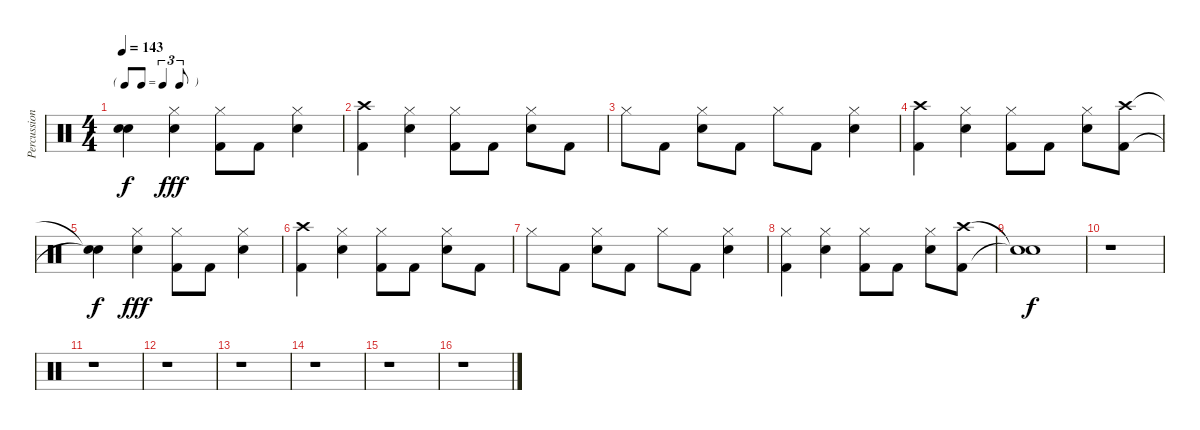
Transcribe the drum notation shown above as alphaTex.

\track ("Percussion" "Percussion") {instrument percussion}
\staff {score}
\articulation defaults
\ts (4 4)
\tf triplet8th
\tempo 143
\clef neutral
\ks c
("Snare (hit)"{t} "Snare (hit)"{t}).4{dy f} ("Hi-Hat (closed)" "Snare (hit) 2").4{dy fff} ("Hi-Hat (closed)" "Kick (hit) 2").8 "Kick (hit) 2".8 ("Hi-Hat (closed)" "Snare (hit) 2").4 |
("Crash high (hit)" "Kick (hit) 2").4 ("Hi-Hat (closed)" "Snare (hit) 2").4 ("Hi-Hat (closed)" "Kick (hit) 2").8 "Kick (hit) 2".8 ("Hi-Hat (closed)" "Snare (hit) 2").8 "Kick (hit) 2".8 |
"Hi-Hat (closed)".8 "Kick (hit) 2".8 ("Hi-Hat (closed)" "Snare (hit) 2").8 "Kick (hit) 2".8 "Hi-Hat (closed)".8 "Kick (hit) 2".8 ("Hi-Hat (closed)" "Snare (hit) 2").4 |
("Crash high (hit)" "Kick (hit) 2").4 ("Hi-Hat (closed)" "Snare (hit) 2").4 ("Hi-Hat (closed)" "Kick (hit) 2").8 "Kick (hit) 2".8 ("Hi-Hat (closed)" "Snare (hit) 2").8 ("Crash high (hit)" "Kick (hit) 2").8 |
("Snare (hit)"{t} "Snare (hit)"{t}).4{dy f} ("Hi-Hat (closed)" "Snare (hit) 2").4{dy fff} ("Hi-Hat (closed)" "Kick (hit) 2").8 "Kick (hit) 2".8 ("Hi-Hat (closed)" "Snare (hit) 2").4 |
("Crash high (hit)" "Kick (hit) 2").4 ("Hi-Hat (closed)" "Snare (hit) 2").4 ("Hi-Hat (closed)" "Kick (hit) 2").8 "Kick (hit) 2".8 ("Hi-Hat (closed)" "Snare (hit) 2").8 "Kick (hit) 2".8 |
"Hi-Hat (closed)".8 "Kick (hit) 2".8 ("Hi-Hat (closed)" "Snare (hit) 2").8 "Kick (hit) 2".8 "Hi-Hat (closed)".8 "Kick (hit) 2".8 ("Hi-Hat (closed)" "Snare (hit) 2").4 |
("Hi-Hat (closed)" "Kick (hit) 2").4 ("Hi-Hat (closed)" "Snare (hit) 2").4 ("Hi-Hat (closed)" "Kick (hit) 2").8 "Kick (hit) 2".8 ("Hi-Hat (closed)" "Snare (hit) 2").8 ("Crash high (hit)" "Kick (hit) 2").8 |
("Snare (hit)"{t} "Snare (hit)"{t}).1{dy f} |
r.1 |
r.1 |
r.1 |
r.1 |
r.1 |
r.1 |
r.1
